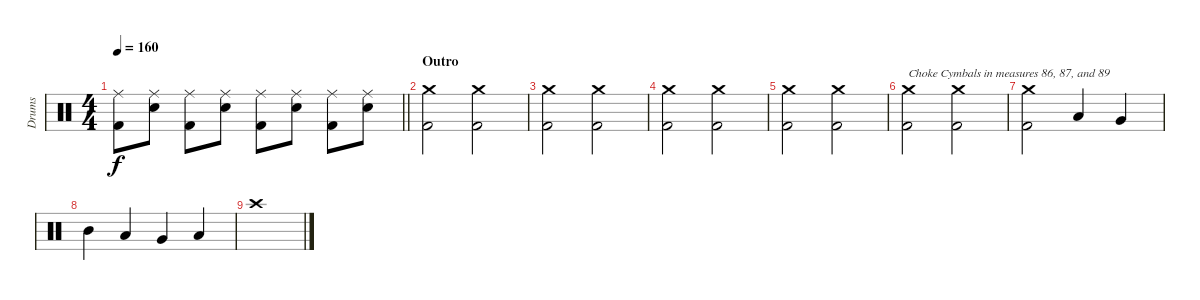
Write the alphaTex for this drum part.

\track ("Drums" "Drums") {instrument percussion}
\staff {score}
\articulation defaults
\ts (4 4)
\tempo 160
\clef neutral
\barLineRight lightlight
\ks c
("Ride (middle)" "Kick (hit) 2").8{dy f} ("Ride (middle)" "Electric Snare (hit)").8 ("Ride (middle)" "Kick (hit) 2").8 ("Ride (middle)" "Electric Snare (hit)").8 ("Ride (middle)" "Kick (hit) 2").8 ("Ride (middle)" "Electric Snare (hit)").8 ("Ride (middle)" "Kick (hit) 2").8 ("Ride (middle)" "Electric Snare (hit)").8 |
\section ("" "Outro")
("Crash medium (hit)" "Kick (hit) 2").2 ("Crash medium (hit)" "Kick (hit) 2").2 |
("Crash medium (hit)" "Kick (hit) 2").2 ("Crash medium (hit)" "Kick (hit) 2").2 |
("Crash medium (hit)" "Kick (hit) 2").2 ("Crash medium (hit)" "Kick (hit) 2").2 |
("Crash medium (hit)" "Kick (hit) 2").2 ("Crash medium (hit)" "Kick (hit) 2").2 |
("Crash medium (hit)" "Kick (hit) 2").2{txt "Choke Cymbals in measures 86, 87, and 89"} ("Crash medium (hit)" "Kick (hit) 2").2 |
("Crash medium (hit)" "Kick (hit) 2").2 "Low Floor Tom (hit)".4 "Very Low Tom (hit)".4 |
"Mid Tom (hit)".4 "Low Tom (hit)".4 "Very Low Tom (hit)".4 "Low Floor Tom (hit)".4 |
"Crash high (hit)".1
